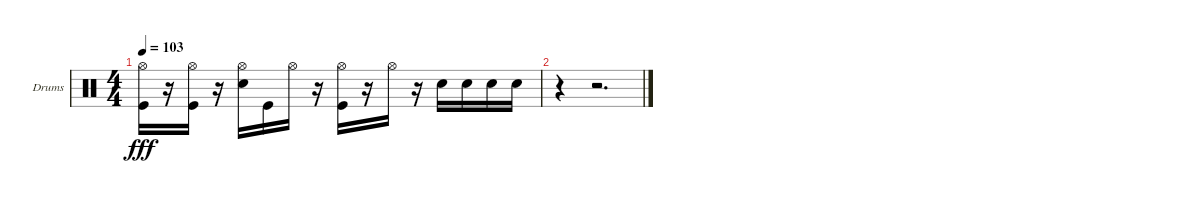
\bracketExtendMode groupsimilarinstruments
\firstSystemTrackNameOrientation horizontal
\otherSystemsTrackNameOrientation horizontal
\track ("Drumkit" "Drums") {instrument percussion}
\staff {score}
\articulation defaults
\ts (4 4)
\tempo 103
\clef neutral
\ks c
("Hi-Hat (open)" "Kick (hit)").16{dy fff} r.16 ("Hi-Hat (open)" "Kick (hit)").16 r.16 ("Hi-Hat (open)" "Snare (hit) 2").16 "Kick (hit)".16 "Hi-Hat (open)".16 r.16 ("Hi-Hat (open)" "Kick (hit)").16 r.16 "Hi-Hat (open)".16 r.16 "Snare (hit) 2".16 "Snare (hit) 2".16 "Snare (hit) 2".16 "Snare (hit) 2".16 |
r.4 r.2{d}
